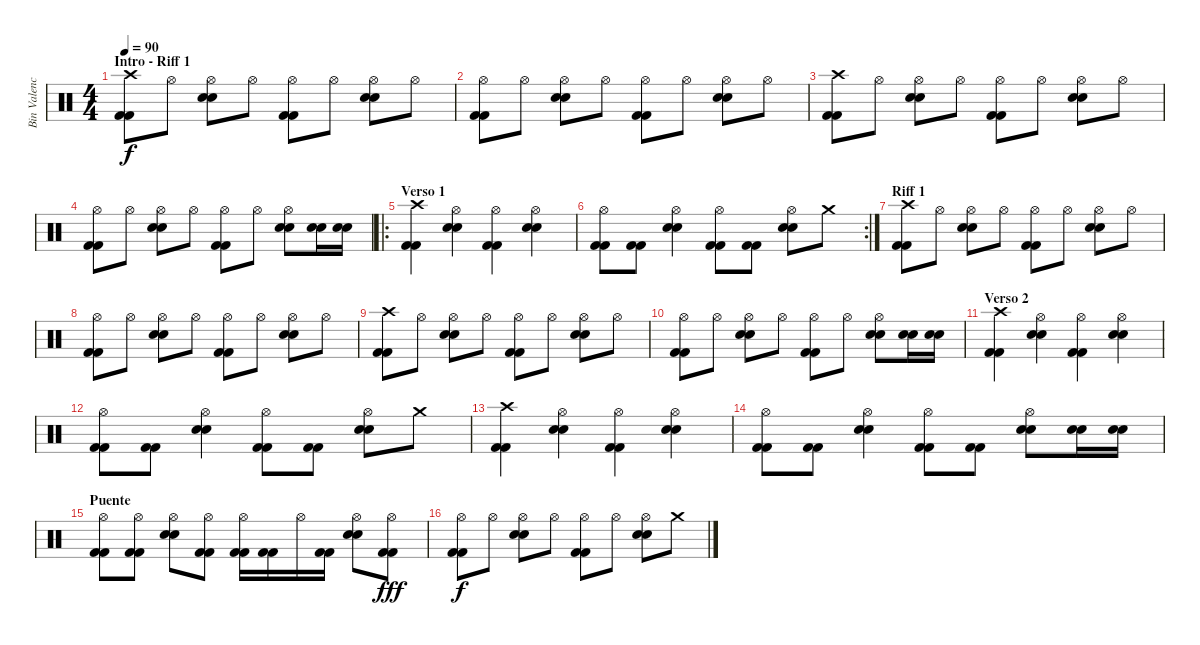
\track ("Bin Valencia" "Bin Valenc") {instrument percussion}
\staff {score}
\articulation defaults
\ts (4 4)
\section ("" "Intro - Riff 1")
\tempo 90
\clef neutral
\ks c
("Crash high (hit)" "Kick (hit) 2" "Kick (hit) 2").8{dy f} "Hi-Hat (open)".8 ("Hi-Hat (open)" "Snare (hit) 2" "Snare (hit) 2").8 "Hi-Hat (open)".8 ("Hi-Hat (open)" "Kick (hit) 2" "Kick (hit) 2").8 "Hi-Hat (open)".8 ("Hi-Hat (open)" "Snare (hit) 2" "Snare (hit) 2").8 "Hi-Hat (open)".8 |
("Hi-Hat (open)" "Kick (hit) 2" "Kick (hit) 2").8 "Hi-Hat (open)".8 ("Hi-Hat (open)" "Snare (hit) 2" "Snare (hit) 2").8 "Hi-Hat (open)".8 ("Hi-Hat (open)" "Kick (hit) 2" "Kick (hit) 2").8 "Hi-Hat (open)".8 ("Hi-Hat (open)" "Snare (hit) 2" "Snare (hit) 2").8 "Hi-Hat (open)".8 |
("Crash high (hit)" "Kick (hit) 2" "Kick (hit) 2").8 "Hi-Hat (open)".8 ("Hi-Hat (open)" "Snare (hit) 2" "Snare (hit) 2").8 "Hi-Hat (open)".8 ("Hi-Hat (open)" "Kick (hit) 2" "Kick (hit) 2").8 "Hi-Hat (open)".8 ("Hi-Hat (open)" "Snare (hit) 2" "Snare (hit) 2").8 "Hi-Hat (open)".8 |
("Hi-Hat (open)" "Kick (hit) 2" "Kick (hit) 2").8 "Hi-Hat (open)".8 ("Hi-Hat (open)" "Snare (hit) 2" "Snare (hit) 2").8 "Hi-Hat (open)".8 ("Hi-Hat (open)" "Kick (hit) 2" "Kick (hit) 2").8 "Hi-Hat (open)".8 ("Hi-Hat (open)" "Snare (hit) 2" "Snare (hit) 2").8 ("Snare (hit) 2" "Snare (hit) 2").16 ("Snare (hit) 2" "Snare (hit) 2").16 |
\ro
\section ("" "Verso 1")
("Crash high (hit)" "Kick (hit) 2" "Kick (hit) 2").4 ("Hi-Hat (open)" "Snare (hit) 2" "Snare (hit) 2").4 ("Hi-Hat (open)" "Kick (hit) 2" "Kick (hit) 2").4 ("Hi-Hat (open)" "Snare (hit) 2" "Snare (hit) 2").4 |
\rc 2
("Hi-Hat (open)" "Kick (hit) 2" "Kick (hit) 2").8 ("Kick (hit) 2" "Kick (hit) 2").8 ("Hi-Hat (open)" "Snare (hit) 2" "Snare (hit) 2").4 ("Hi-Hat (open)" "Kick (hit) 2" "Kick (hit) 2").8 ("Kick (hit) 2" "Kick (hit) 2").8 ("Hi-Hat (open)" "Snare (hit) 2" "Snare (hit) 2").8 "Crash medium (hit)".8 |
\section ("" "Riff 1")
("Crash high (hit)" "Kick (hit) 2" "Kick (hit) 2").8 "Hi-Hat (open)".8 ("Hi-Hat (open)" "Snare (hit) 2" "Snare (hit) 2").8 "Hi-Hat (open)".8 ("Hi-Hat (open)" "Kick (hit) 2" "Kick (hit) 2").8 "Hi-Hat (open)".8 ("Hi-Hat (open)" "Snare (hit) 2" "Snare (hit) 2").8 "Hi-Hat (open)".8 |
("Hi-Hat (open)" "Kick (hit) 2" "Kick (hit) 2").8 "Hi-Hat (open)".8 ("Hi-Hat (open)" "Snare (hit) 2" "Snare (hit) 2").8 "Hi-Hat (open)".8 ("Hi-Hat (open)" "Kick (hit) 2" "Kick (hit) 2").8 "Hi-Hat (open)".8 ("Hi-Hat (open)" "Snare (hit) 2" "Snare (hit) 2").8 "Hi-Hat (open)".8 |
("Crash high (hit)" "Kick (hit) 2" "Kick (hit) 2").8 "Hi-Hat (open)".8 ("Hi-Hat (open)" "Snare (hit) 2" "Snare (hit) 2").8 "Hi-Hat (open)".8 ("Hi-Hat (open)" "Kick (hit) 2" "Kick (hit) 2").8 "Hi-Hat (open)".8 ("Hi-Hat (open)" "Snare (hit) 2" "Snare (hit) 2").8 "Hi-Hat (open)".8 |
("Hi-Hat (open)" "Kick (hit) 2" "Kick (hit) 2").8 "Hi-Hat (open)".8 ("Hi-Hat (open)" "Snare (hit) 2" "Snare (hit) 2").8 "Hi-Hat (open)".8 ("Hi-Hat (open)" "Kick (hit) 2" "Kick (hit) 2").8 "Hi-Hat (open)".8 ("Hi-Hat (open)" "Snare (hit) 2" "Snare (hit) 2").8 ("Snare (hit) 2" "Snare (hit) 2").16 ("Snare (hit) 2" "Snare (hit) 2").16 |
\section ("" "Verso 2")
("Crash high (hit)" "Kick (hit) 2" "Kick (hit) 2").4 ("Hi-Hat (open)" "Snare (hit) 2" "Snare (hit) 2").4 ("Hi-Hat (open)" "Kick (hit) 2" "Kick (hit) 2").4 ("Hi-Hat (open)" "Snare (hit) 2" "Snare (hit) 2").4 |
("Hi-Hat (open)" "Kick (hit) 2" "Kick (hit) 2").8 ("Kick (hit) 2" "Kick (hit) 2").8 ("Hi-Hat (open)" "Snare (hit) 2" "Snare (hit) 2").4 ("Hi-Hat (open)" "Kick (hit) 2" "Kick (hit) 2").8 ("Kick (hit) 2" "Kick (hit) 2").8 ("Hi-Hat (open)" "Snare (hit) 2" "Snare (hit) 2").8 "Crash medium (hit)".8 |
("Crash high (hit)" "Kick (hit) 2" "Kick (hit) 2").4 ("Hi-Hat (open)" "Snare (hit) 2" "Snare (hit) 2").4 ("Hi-Hat (open)" "Kick (hit) 2" "Kick (hit) 2").4 ("Hi-Hat (open)" "Snare (hit) 2" "Snare (hit) 2").4 |
("Hi-Hat (open)" "Kick (hit) 2" "Kick (hit) 2").8 ("Kick (hit) 2" "Kick (hit) 2").8 ("Hi-Hat (open)" "Snare (hit) 2" "Snare (hit) 2").4 ("Hi-Hat (open)" "Kick (hit) 2" "Kick (hit) 2").8 ("Kick (hit) 2" "Kick (hit) 2").8 ("Hi-Hat (open)" "Snare (hit) 2" "Snare (hit) 2").8 ("Snare (hit) 2" "Snare (hit) 2").16 ("Snare (hit) 2" "Snare (hit) 2").16 |
\section ("" "Puente")
("Hi-Hat (open)" "Kick (hit) 2" "Kick (hit) 2").8 ("Hi-Hat (open)" "Kick (hit) 2" "Kick (hit) 2").8 ("Hi-Hat (open)" "Snare (hit) 2" "Snare (hit) 2").8 ("Hi-Hat (open)" "Kick (hit) 2" "Kick (hit) 2").8 ("Hi-Hat (open)" "Kick (hit) 2" "Kick (hit) 2").16 ("Kick (hit) 2" "Kick (hit) 2").16 "Hi-Hat (open)".16 ("Kick (hit) 2" "Kick (hit) 2").16 ("Hi-Hat (open)" "Snare (hit) 2" "Snare (hit) 2").8 ("Hi-Hat (open)" "Kick (hit) 2" "Kick (hit) 2").8{dy fff} |
("Hi-Hat (open)" "Kick (hit) 2" "Kick (hit) 2").8{dy f} "Hi-Hat (open)".8 ("Hi-Hat (open)" "Snare (hit) 2" "Snare (hit) 2").8 "Hi-Hat (open)".8 ("Hi-Hat (open)" "Kick (hit) 2" "Kick (hit) 2").8 "Hi-Hat (open)".8 ("Hi-Hat (open)" "Snare (hit) 2" "Snare (hit) 2").8 "Crash medium (hit)".8
